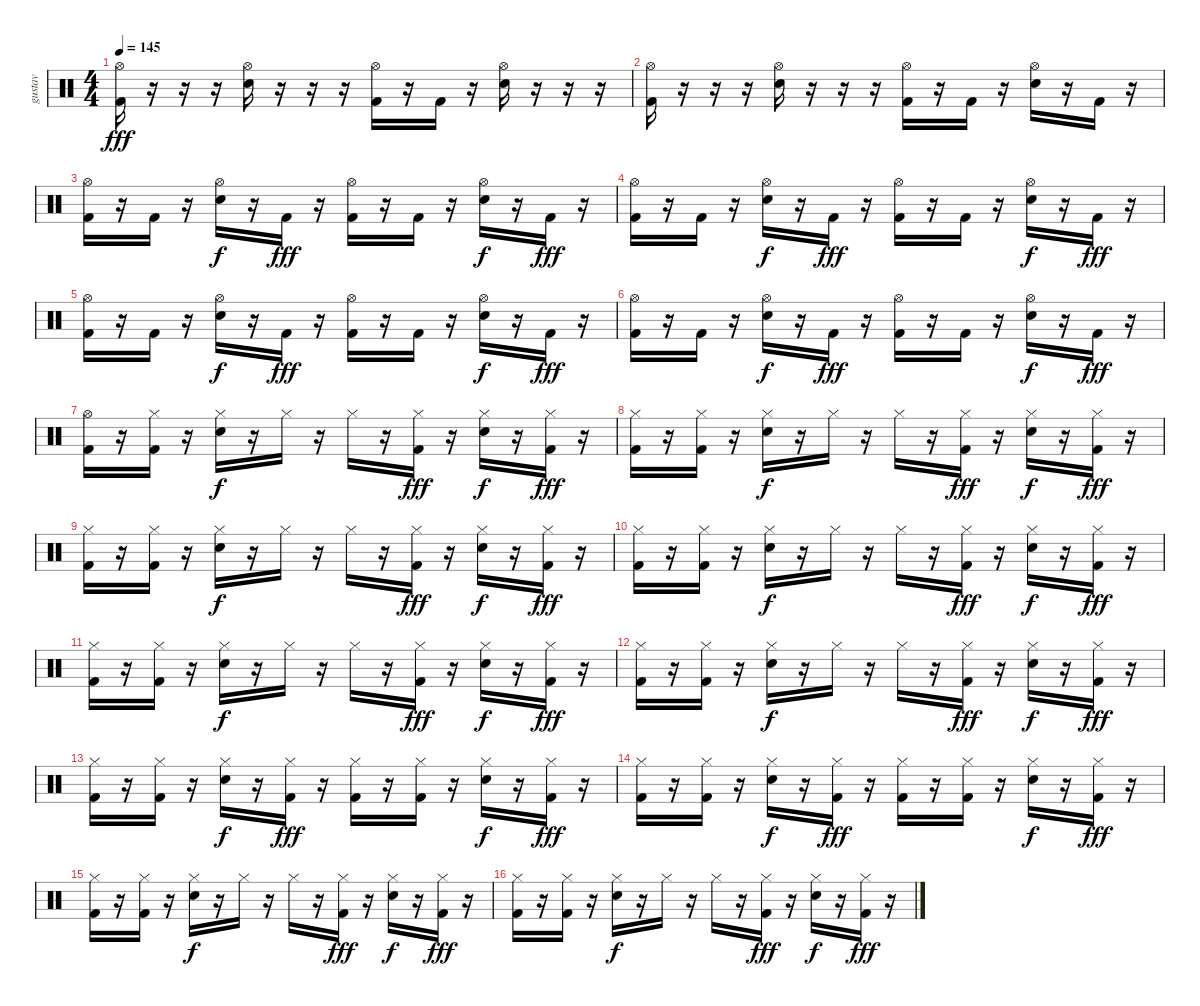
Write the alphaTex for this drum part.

\track ("gustav" "gustav") {instrument percussion}
\staff {score}
\articulation defaults
\ts (4 4)
\tempo 145
\clef neutral
\ks c
("Hi-Hat (open)" "Kick (hit) 2").16{dy fff} r.16 r.16 r.16 ("Hi-Hat (open)" "Electric Snare (hit)").16 r.16 r.16 r.16 ("Hi-Hat (open)" "Kick (hit) 2").16 r.16 "Kick (hit) 2".16 r.16 ("Hi-Hat (open)" "Electric Snare (hit)").16 r.16 r.16 r.16 |
("Hi-Hat (open)" "Kick (hit) 2").16 r.16 r.16 r.16 ("Hi-Hat (open)" "Electric Snare (hit)").16 r.16 r.16 r.16 ("Hi-Hat (open)" "Kick (hit) 2").16 r.16 "Kick (hit) 2".16 r.16 ("Hi-Hat (open)" "Electric Snare (hit)").16 r.16 "Kick (hit) 2".16 r.16 |
("Hi-Hat (open)" "Kick (hit) 2").16 r.16 "Kick (hit) 2".16 r.16 ("Hi-Hat (open)" "Electric Snare (hit)").16{dy f} r.16 "Kick (hit) 2".16{dy fff} r.16 ("Hi-Hat (open)" "Kick (hit) 2").16 r.16 "Kick (hit) 2".16 r.16 ("Hi-Hat (open)" "Electric Snare (hit)").16{dy f} r.16 "Kick (hit) 2".16{dy fff} r.16 |
("Hi-Hat (open)" "Kick (hit) 2").16 r.16 "Kick (hit) 2".16 r.16 ("Hi-Hat (open)" "Electric Snare (hit)").16{dy f} r.16 "Kick (hit) 2".16{dy fff} r.16 ("Hi-Hat (open)" "Kick (hit) 2").16 r.16 "Kick (hit) 2".16 r.16 ("Hi-Hat (open)" "Electric Snare (hit)").16{dy f} r.16 "Kick (hit) 2".16{dy fff} r.16 |
("Hi-Hat (open)" "Kick (hit) 2").16 r.16 "Kick (hit) 2".16 r.16 ("Hi-Hat (open)" "Electric Snare (hit)").16{dy f} r.16 "Kick (hit) 2".16{dy fff} r.16 ("Hi-Hat (open)" "Kick (hit) 2").16 r.16 "Kick (hit) 2".16 r.16 ("Hi-Hat (open)" "Electric Snare (hit)").16{dy f} r.16 "Kick (hit) 2".16{dy fff} r.16 |
("Hi-Hat (open)" "Kick (hit) 2").16 r.16 "Kick (hit) 2".16 r.16 ("Hi-Hat (open)" "Electric Snare (hit)").16{dy f} r.16 "Kick (hit) 2".16{dy fff} r.16 ("Hi-Hat (open)" "Kick (hit) 2").16 r.16 "Kick (hit) 2".16 r.16 ("Hi-Hat (open)" "Electric Snare (hit)").16{dy f} r.16 "Kick (hit) 2".16{dy fff} r.16 |
("Hi-Hat (open)" "Kick (hit) 2").16 r.16 ("Hi-Hat (closed)" "Kick (hit) 2").16 r.16 ("Hi-Hat (closed)" "Electric Snare (hit)").16{dy f} r.16 "Hi-Hat (closed)".16 r.16 "Hi-Hat (closed)".16 r.16 ("Hi-Hat (closed)" "Kick (hit) 2").16{dy fff} r.16 ("Hi-Hat (closed)" "Electric Snare (hit)").16{dy f} r.16 ("Hi-Hat (closed)" "Kick (hit) 2").16{dy fff} r.16 |
("Hi-Hat (closed)" "Kick (hit) 2").16 r.16 ("Hi-Hat (closed)" "Kick (hit) 2").16 r.16 ("Hi-Hat (closed)" "Electric Snare (hit)").16{dy f} r.16 "Hi-Hat (closed)".16 r.16 "Hi-Hat (closed)".16 r.16 ("Hi-Hat (closed)" "Kick (hit) 2").16{dy fff} r.16 ("Hi-Hat (closed)" "Electric Snare (hit)").16{dy f} r.16 ("Hi-Hat (closed)" "Kick (hit) 2").16{dy fff} r.16 |
("Hi-Hat (closed)" "Kick (hit) 2").16 r.16 ("Hi-Hat (closed)" "Kick (hit) 2").16 r.16 ("Hi-Hat (closed)" "Electric Snare (hit)").16{dy f} r.16 "Hi-Hat (closed)".16 r.16 "Hi-Hat (closed)".16 r.16 ("Hi-Hat (closed)" "Kick (hit) 2").16{dy fff} r.16 ("Hi-Hat (closed)" "Electric Snare (hit)").16{dy f} r.16 ("Hi-Hat (closed)" "Kick (hit) 2").16{dy fff} r.16 |
("Hi-Hat (closed)" "Kick (hit) 2").16 r.16 ("Hi-Hat (closed)" "Kick (hit) 2").16 r.16 ("Hi-Hat (closed)" "Electric Snare (hit)").16{dy f} r.16 "Hi-Hat (closed)".16 r.16 "Hi-Hat (closed)".16 r.16 ("Hi-Hat (closed)" "Kick (hit) 2").16{dy fff} r.16 ("Hi-Hat (closed)" "Electric Snare (hit)").16{dy f} r.16 ("Hi-Hat (closed)" "Kick (hit) 2").16{dy fff} r.16 |
("Hi-Hat (closed)" "Kick (hit) 2").16 r.16 ("Hi-Hat (closed)" "Kick (hit) 2").16 r.16 ("Hi-Hat (closed)" "Electric Snare (hit)").16{dy f} r.16 "Hi-Hat (closed)".16 r.16 "Hi-Hat (closed)".16 r.16 ("Hi-Hat (closed)" "Kick (hit) 2").16{dy fff} r.16 ("Hi-Hat (closed)" "Electric Snare (hit)").16{dy f} r.16 ("Hi-Hat (closed)" "Kick (hit) 2").16{dy fff} r.16 |
("Hi-Hat (closed)" "Kick (hit) 2").16 r.16 ("Hi-Hat (closed)" "Kick (hit) 2").16 r.16 ("Hi-Hat (closed)" "Electric Snare (hit)").16{dy f} r.16 "Hi-Hat (closed)".16 r.16 "Hi-Hat (closed)".16 r.16 ("Hi-Hat (closed)" "Kick (hit) 2").16{dy fff} r.16 ("Hi-Hat (closed)" "Electric Snare (hit)").16{dy f} r.16 ("Hi-Hat (closed)" "Kick (hit) 2").16{dy fff} r.16 |
("Hi-Hat (closed)" "Kick (hit) 2").16 r.16 ("Hi-Hat (closed)" "Kick (hit) 2").16 r.16 ("Hi-Hat (closed)" "Electric Snare (hit)").16{dy f} r.16 ("Hi-Hat (closed)" "Kick (hit) 2").16{dy fff} r.16 ("Hi-Hat (closed)" "Kick (hit) 2").16 r.16 ("Hi-Hat (closed)" "Kick (hit) 2").16 r.16 ("Hi-Hat (closed)" "Electric Snare (hit)").16{dy f} r.16 ("Hi-Hat (closed)" "Kick (hit) 2").16{dy fff} r.16 |
("Hi-Hat (closed)" "Kick (hit) 2").16 r.16 ("Hi-Hat (closed)" "Kick (hit) 2").16 r.16 ("Hi-Hat (closed)" "Electric Snare (hit)").16{dy f} r.16 ("Hi-Hat (closed)" "Kick (hit) 2").16{dy fff} r.16 ("Hi-Hat (closed)" "Kick (hit) 2").16 r.16 ("Hi-Hat (closed)" "Kick (hit) 2").16 r.16 ("Hi-Hat (closed)" "Electric Snare (hit)").16{dy f} r.16 ("Hi-Hat (closed)" "Kick (hit) 2").16{dy fff} r.16 |
("Hi-Hat (closed)" "Kick (hit) 2").16 r.16 ("Hi-Hat (closed)" "Kick (hit) 2").16 r.16 ("Hi-Hat (closed)" "Electric Snare (hit)").16{dy f} r.16 "Hi-Hat (closed)".16 r.16 "Hi-Hat (closed)".16 r.16 ("Hi-Hat (closed)" "Kick (hit) 2").16{dy fff} r.16 ("Hi-Hat (closed)" "Electric Snare (hit)").16{dy f} r.16 ("Hi-Hat (closed)" "Kick (hit) 2").16{dy fff} r.16 |
("Hi-Hat (closed)" "Kick (hit) 2").16 r.16 ("Hi-Hat (closed)" "Kick (hit) 2").16 r.16 ("Hi-Hat (closed)" "Electric Snare (hit)").16{dy f} r.16 "Hi-Hat (closed)".16 r.16 "Hi-Hat (closed)".16 r.16 ("Hi-Hat (closed)" "Kick (hit) 2").16{dy fff} r.16 ("Hi-Hat (closed)" "Electric Snare (hit)").16{dy f} r.16 ("Hi-Hat (closed)" "Kick (hit) 2").16{dy fff} r.16
